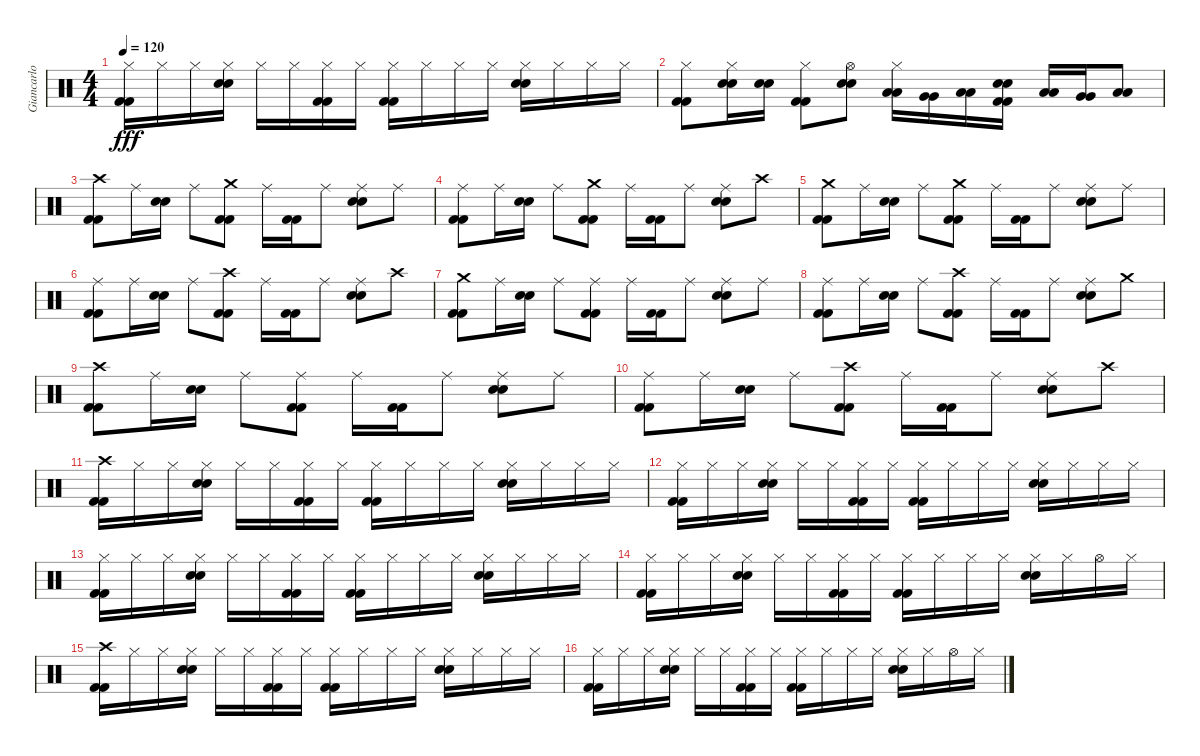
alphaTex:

\track ("Giancarlo Autenzio - Drums" "Giancarlo ") {instrument percussion}
\staff {score}
\articulation defaults
\ts (4 4)
\tempo 120
\clef neutral
\ks c
("Kick (hit) 2" "Kick (hit) 2" "Hi-Hat (closed)").16{dy fff} "Hi-Hat (closed)".16 "Hi-Hat (closed)".16 ("Electric Snare (hit)" "Electric Snare (hit)" "Hi-Hat (closed)").16 "Hi-Hat (closed)".16 "Hi-Hat (closed)".16 ("Kick (hit) 2" "Kick (hit) 2" "Hi-Hat (closed)").16 "Hi-Hat (closed)".16 ("Kick (hit) 2" "Kick (hit) 2" "Hi-Hat (closed)").16 "Hi-Hat (closed)".16 "Hi-Hat (closed)".16 "Hi-Hat (closed)".16 ("Electric Snare (hit)" "Electric Snare (hit)" "Hi-Hat (closed)").16 "Hi-Hat (closed)".16 "Hi-Hat (closed)".16 "Hi-Hat (closed)".16 |
("Kick (hit) 2" "Kick (hit) 2" "Hi-Hat (closed)").8 ("Electric Snare (hit)" "Electric Snare (hit)" "Hi-Hat (closed)").16 ("Electric Snare (hit)" "Electric Snare (hit)").16 ("Kick (hit) 2" "Kick (hit) 2" "Hi-Hat (closed)").8 ("Electric Snare (hit)" "Electric Snare (hit)" "Hi-Hat (open)").8 ("Low Tom (hit)" "Low Tom (hit)" "Hi-Hat (closed)").16 ("Very Low Tom (hit)" "Very Low Tom (hit)").16 ("Low Floor Tom (hit)" "Low Floor Tom (hit)").16 ("Kick (hit) 2" "Kick (hit) 2" "Electric Snare (hit)" "Electric Snare (hit)").16 ("Low Tom (hit)" "Low Tom (hit)").16 ("Very Low Tom (hit)" "Very Low Tom (hit)").16 ("Low Floor Tom (hit)" "Low Floor Tom (hit)").8 |
("Kick (hit) 2" "Kick (hit) 2" "Crash high (hit)").8 "Ride (middle)".16 ("Electric Snare (hit)" "Electric Snare (hit)").16 "Ride (middle)".8 ("Kick (hit) 2" "Kick (hit) 2" "Crash medium (hit)").8 "Ride (middle)".16 ("Kick (hit) 2" "Kick (hit) 2").16 "Ride (middle)".8 ("Electric Snare (hit)" "Electric Snare (hit)" "Ride (middle)").8 "Ride (middle)".8 |
("Kick (hit) 2" "Kick (hit) 2" "Ride (middle)").8 "Ride (middle)".16 ("Electric Snare (hit)" "Electric Snare (hit)").16 "Ride (middle)".8 ("Kick (hit) 2" "Kick (hit) 2" "Crash medium (hit)").8 "Ride (middle)".16 ("Kick (hit) 2" "Kick (hit) 2").16 "Ride (middle)".8 ("Electric Snare (hit)" "Electric Snare (hit)" "Ride (middle)").8 "Crash high (hit)".8 |
("Kick (hit) 2" "Kick (hit) 2" "Crash medium (hit)").8 "Ride (middle)".16 ("Electric Snare (hit)" "Electric Snare (hit)").16 "Ride (middle)".8 ("Kick (hit) 2" "Kick (hit) 2" "Crash medium (hit)").8 "Ride (middle)".16 ("Kick (hit) 2" "Kick (hit) 2").16 "Ride (middle)".8 ("Electric Snare (hit)" "Electric Snare (hit)" "Ride (middle)").8 "Ride (middle)".8 |
("Kick (hit) 2" "Kick (hit) 2" "Ride (middle)").8 "Ride (middle)".16 ("Electric Snare (hit)" "Electric Snare (hit)").16 "Ride (middle)".8 ("Kick (hit) 2" "Kick (hit) 2" "Crash high (hit)").8 "Ride (middle)".16 ("Kick (hit) 2" "Kick (hit) 2").16 "Ride (middle)".8 ("Electric Snare (hit)" "Electric Snare (hit)" "Ride (middle)").8 "Crash high (hit)".8 |
("Kick (hit) 2" "Kick (hit) 2" "Crash medium (hit)").8 "Ride (middle)".16 ("Electric Snare (hit)" "Electric Snare (hit)").16 "Ride (middle)".8 ("Kick (hit) 2" "Kick (hit) 2" "Ride (middle)").8 "Ride (middle)".16 ("Kick (hit) 2" "Kick (hit) 2").16 "Ride (middle)".8 ("Electric Snare (hit)" "Electric Snare (hit)" "Ride (middle)").8 "Ride (middle)".8 |
("Kick (hit) 2" "Kick (hit) 2" "Ride (middle)").8 "Ride (middle)".16 ("Electric Snare (hit)" "Electric Snare (hit)").16 "Ride (middle)".8 ("Kick (hit) 2" "Kick (hit) 2" "Crash high (hit)").8 "Ride (middle)".16 ("Kick (hit) 2" "Kick (hit) 2").16 "Ride (middle)".8 ("Electric Snare (hit)" "Electric Snare (hit)" "Ride (middle)").8 "Crash medium (hit)".8 |
("Kick (hit) 2" "Kick (hit) 2" "Crash high (hit)").8 "Ride (middle)".16 ("Electric Snare (hit)" "Electric Snare (hit)").16 "Ride (middle)".8 ("Kick (hit) 2" "Kick (hit) 2" "Ride (middle)").8 "Ride (middle)".16 ("Kick (hit) 2" "Kick (hit) 2").16 "Ride (middle)".8 ("Electric Snare (hit)" "Electric Snare (hit)" "Ride (middle)").8 "Ride (middle)".8 |
("Kick (hit) 2" "Kick (hit) 2" "Ride (middle)").8 "Ride (middle)".16 ("Electric Snare (hit)" "Electric Snare (hit)").16 "Ride (middle)".8 ("Kick (hit) 2" "Kick (hit) 2" "Crash high (hit)").8 "Ride (middle)".16 ("Kick (hit) 2" "Kick (hit) 2").16 "Ride (middle)".8 ("Electric Snare (hit)" "Electric Snare (hit)" "Ride (middle)").8 "Crash high (hit)".8 |
("Kick (hit) 2" "Kick (hit) 2" "Crash high (hit)").16 "Hi-Hat (closed)".16 "Hi-Hat (closed)".16 ("Electric Snare (hit)" "Electric Snare (hit)" "Hi-Hat (closed)").16 "Hi-Hat (closed)".16 "Hi-Hat (closed)".16 ("Kick (hit) 2" "Kick (hit) 2" "Hi-Hat (closed)").16 "Hi-Hat (closed)".16 ("Kick (hit) 2" "Kick (hit) 2" "Hi-Hat (closed)").16 "Hi-Hat (closed)".16 "Hi-Hat (closed)".16 "Hi-Hat (closed)".16 ("Electric Snare (hit)" "Electric Snare (hit)" "Hi-Hat (closed)").16 "Hi-Hat (closed)".16 "Hi-Hat (closed)".16 "Hi-Hat (closed)".16 |
("Kick (hit) 2" "Kick (hit) 2" "Hi-Hat (closed)").16 "Hi-Hat (closed)".16 "Hi-Hat (closed)".16 ("Electric Snare (hit)" "Electric Snare (hit)" "Hi-Hat (closed)").16 "Hi-Hat (closed)".16 "Hi-Hat (closed)".16 ("Kick (hit) 2" "Kick (hit) 2" "Hi-Hat (closed)").16 "Hi-Hat (closed)".16 ("Kick (hit) 2" "Kick (hit) 2" "Hi-Hat (closed)").16 "Hi-Hat (closed)".16 "Hi-Hat (closed)".16 "Hi-Hat (closed)".16 ("Electric Snare (hit)" "Electric Snare (hit)" "Hi-Hat (closed)").16 "Hi-Hat (closed)".16 "Hi-Hat (closed)".16 "Hi-Hat (closed)".16 |
("Kick (hit) 2" "Kick (hit) 2" "Hi-Hat (closed)").16 "Hi-Hat (closed)".16 "Hi-Hat (closed)".16 ("Electric Snare (hit)" "Electric Snare (hit)" "Hi-Hat (closed)").16 "Hi-Hat (closed)".16 "Hi-Hat (closed)".16 ("Kick (hit) 2" "Kick (hit) 2" "Hi-Hat (closed)").16 "Hi-Hat (closed)".16 ("Kick (hit) 2" "Kick (hit) 2" "Hi-Hat (closed)").16 "Hi-Hat (closed)".16 "Hi-Hat (closed)".16 "Hi-Hat (closed)".16 ("Electric Snare (hit)" "Electric Snare (hit)" "Hi-Hat (closed)").16 "Hi-Hat (closed)".16 "Hi-Hat (closed)".16 "Hi-Hat (closed)".16 |
("Kick (hit) 2" "Kick (hit) 2" "Hi-Hat (closed)").16 "Hi-Hat (closed)".16 "Hi-Hat (closed)".16 ("Electric Snare (hit)" "Electric Snare (hit)" "Hi-Hat (closed)").16 "Hi-Hat (closed)".16 "Hi-Hat (closed)".16 ("Kick (hit) 2" "Kick (hit) 2" "Hi-Hat (closed)").16 "Hi-Hat (closed)".16 ("Kick (hit) 2" "Kick (hit) 2" "Hi-Hat (closed)").16 "Hi-Hat (closed)".16 "Hi-Hat (closed)".16 "Hi-Hat (closed)".16 ("Electric Snare (hit)" "Electric Snare (hit)" "Hi-Hat (closed)").16 "Hi-Hat (closed)".16 "Hi-Hat (open)".16 "Hi-Hat (closed)".16 |
("Kick (hit) 2" "Kick (hit) 2" "Crash high (hit)").16 "Hi-Hat (closed)".16 "Hi-Hat (closed)".16 ("Electric Snare (hit)" "Electric Snare (hit)" "Hi-Hat (closed)").16 "Hi-Hat (closed)".16 "Hi-Hat (closed)".16 ("Kick (hit) 2" "Kick (hit) 2" "Hi-Hat (closed)").16 "Hi-Hat (closed)".16 ("Kick (hit) 2" "Kick (hit) 2" "Hi-Hat (closed)").16 "Hi-Hat (closed)".16 "Hi-Hat (closed)".16 "Hi-Hat (closed)".16 ("Electric Snare (hit)" "Electric Snare (hit)" "Hi-Hat (closed)").16 "Hi-Hat (closed)".16 "Hi-Hat (closed)".16 "Hi-Hat (closed)".16 |
("Kick (hit) 2" "Kick (hit) 2" "Hi-Hat (closed)").16 "Hi-Hat (closed)".16 "Hi-Hat (closed)".16 ("Electric Snare (hit)" "Electric Snare (hit)" "Hi-Hat (closed)").16 "Hi-Hat (closed)".16 "Hi-Hat (closed)".16 ("Kick (hit) 2" "Kick (hit) 2" "Hi-Hat (closed)").16 "Hi-Hat (closed)".16 ("Kick (hit) 2" "Kick (hit) 2" "Hi-Hat (closed)").16 "Hi-Hat (closed)".16 "Hi-Hat (closed)".16 "Hi-Hat (closed)".16 ("Electric Snare (hit)" "Electric Snare (hit)" "Hi-Hat (closed)").16 "Hi-Hat (closed)".16 "Hi-Hat (open)".16 "Hi-Hat (closed)".16
